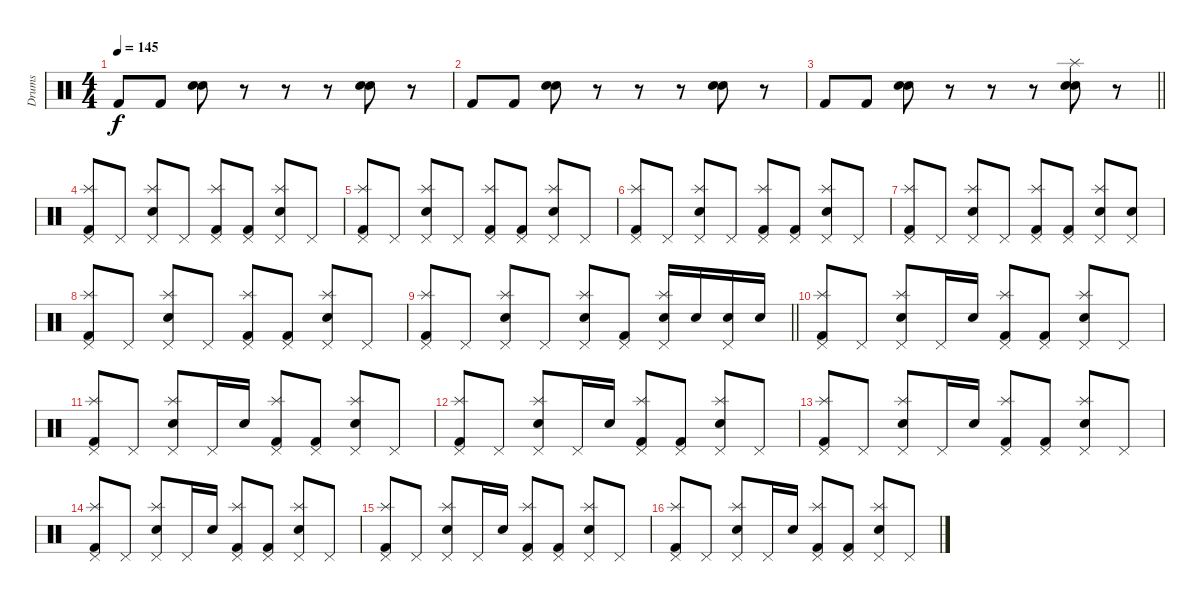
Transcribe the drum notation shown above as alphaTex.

\track ("Drums" "Drums") {instrument percussion}
\staff {score}
\articulation defaults
\ts (4 4)
\tempo 145
\clef neutral
\ks c "Kick (hit) 2".8{dy f} "Kick (hit) 2".8
("Electric Snare (hit)" "Electric Snare (hit)").8{bd 60} r.8 r.8 r.8 ("Electric Snare (hit)" "Electric Snare (hit)").8{bd 60} r.8 |
"Kick (hit) 2".8 "Kick (hit) 2".8 ("Electric Snare (hit)" "Electric Snare (hit)").8{bd 60} r.8 r.8 r.8 ("Electric Snare (hit)" "Electric Snare (hit)").8{bd 60} r.8 |
\barLineRight lightlight "Kick (hit) 2".8 "Kick (hit) 2".8
("Electric Snare (hit)" "Electric Snare (hit)").8{bd 60} r.8 r.8 r.8 ("Splash (hit)" "Electric Snare (hit)" "Electric Snare (hit)").8{bd 60} r.8 |
("Splash (hit)" "Pedal Hi-Hat (hit)" "Kick (hit) 2").8 "Pedal Hi-Hat (hit)".8 ("Splash (hit)" "Pedal Hi-Hat (hit)" "Electric Snare (hit)").8 "Pedal Hi-Hat (hit)".8 ("Splash (hit)" "Pedal Hi-Hat (hit)" "Kick (hit) 2").8 ("Pedal Hi-Hat (hit)" "Kick (hit) 2").8 ("Splash (hit)" "Pedal Hi-Hat (hit)" "Electric Snare (hit)").8 "Pedal Hi-Hat (hit)".8 |
("Splash (hit)" "Pedal Hi-Hat (hit)" "Kick (hit) 2").8 "Pedal Hi-Hat (hit)".8 ("Splash (hit)" "Pedal Hi-Hat (hit)" "Electric Snare (hit)").8 "Pedal Hi-Hat (hit)".8 ("Splash (hit)" "Pedal Hi-Hat (hit)" "Kick (hit) 2").8 ("Pedal Hi-Hat (hit)" "Kick (hit) 2").8 ("Splash (hit)" "Pedal Hi-Hat (hit)" "Electric Snare (hit)").8 "Pedal Hi-Hat (hit)".8 |
("Splash (hit)" "Pedal Hi-Hat (hit)" "Kick (hit) 2").8 "Pedal Hi-Hat (hit)".8 ("Splash (hit)" "Pedal Hi-Hat (hit)" "Electric Snare (hit)").8 "Pedal Hi-Hat (hit)".8 ("Splash (hit)" "Pedal Hi-Hat (hit)" "Kick (hit) 2").8 ("Pedal Hi-Hat (hit)" "Kick (hit) 2").8 ("Splash (hit)" "Pedal Hi-Hat (hit)" "Electric Snare (hit)").8 "Pedal Hi-Hat (hit)".8 |
("Splash (hit)" "Pedal Hi-Hat (hit)" "Kick (hit) 2").8 "Pedal Hi-Hat (hit)".8 ("Splash (hit)" "Pedal Hi-Hat (hit)" "Electric Snare (hit)").8 "Pedal Hi-Hat (hit)".8 ("Splash (hit)" "Pedal Hi-Hat (hit)" "Kick (hit) 2").8 ("Pedal Hi-Hat (hit)" "Kick (hit) 2").8 ("Splash (hit)" "Pedal Hi-Hat (hit)" "Electric Snare (hit)").8 ("Pedal Hi-Hat (hit)" "Electric Snare (hit)").8 |
("Splash (hit)" "Pedal Hi-Hat (hit)" "Kick (hit) 2").8 "Pedal Hi-Hat (hit)".8 ("Splash (hit)" "Pedal Hi-Hat (hit)" "Electric Snare (hit)").8 "Pedal Hi-Hat (hit)".8 ("Splash (hit)" "Pedal Hi-Hat (hit)" "Kick (hit) 2").8 ("Pedal Hi-Hat (hit)" "Kick (hit) 2").8 ("Splash (hit)" "Pedal Hi-Hat (hit)" "Electric Snare (hit)").8 "Pedal Hi-Hat (hit)".8 |
\barLineRight lightlight
("Splash (hit)" "Pedal Hi-Hat (hit)" "Kick (hit) 2").8 "Pedal Hi-Hat (hit)".8 ("Splash (hit)" "Pedal Hi-Hat (hit)" "Electric Snare (hit)").8 "Pedal Hi-Hat (hit)".8 ("Splash (hit)" "Pedal Hi-Hat (hit)" "Electric Snare (hit)").8 ("Pedal Hi-Hat (hit)" "Kick (hit) 2").8 ("Splash (hit)" "Pedal Hi-Hat (hit)" "Electric Snare (hit)").16 "Electric Snare (hit)".16 ("Pedal Hi-Hat (hit)" "Electric Snare (hit)").16 "Electric Snare (hit)".16 |
("Pedal Hi-Hat (hit)" "Splash (hit)" "Kick (hit) 2").8 "Pedal Hi-Hat (hit)".8 ("Pedal Hi-Hat (hit)" "Splash (hit)" "Electric Snare (hit)").8 "Pedal Hi-Hat (hit)".16 "Electric Snare (hit)".16 ("Pedal Hi-Hat (hit)" "Splash (hit)" "Kick (hit) 2").8 ("Pedal Hi-Hat (hit)" "Kick (hit) 2").8 ("Pedal Hi-Hat (hit)" "Splash (hit)" "Electric Snare (hit)").8 "Pedal Hi-Hat (hit)".8 |
("Pedal Hi-Hat (hit)" "Splash (hit)" "Kick (hit) 2").8 "Pedal Hi-Hat (hit)".8 ("Pedal Hi-Hat (hit)" "Splash (hit)" "Electric Snare (hit)").8 "Pedal Hi-Hat (hit)".16 "Electric Snare (hit)".16 ("Pedal Hi-Hat (hit)" "Splash (hit)" "Kick (hit) 2").8 ("Pedal Hi-Hat (hit)" "Kick (hit) 2").8 ("Pedal Hi-Hat (hit)" "Splash (hit)" "Electric Snare (hit)").8 "Pedal Hi-Hat (hit)".8 |
("Pedal Hi-Hat (hit)" "Splash (hit)" "Kick (hit) 2").8 "Pedal Hi-Hat (hit)".8 ("Pedal Hi-Hat (hit)" "Splash (hit)" "Electric Snare (hit)").8 "Pedal Hi-Hat (hit)".16 "Electric Snare (hit)".16 ("Pedal Hi-Hat (hit)" "Splash (hit)" "Kick (hit) 2").8 ("Pedal Hi-Hat (hit)" "Kick (hit) 2").8 ("Pedal Hi-Hat (hit)" "Splash (hit)" "Electric Snare (hit)").8 "Pedal Hi-Hat (hit)".8 |
("Pedal Hi-Hat (hit)" "Splash (hit)" "Kick (hit) 2").8 "Pedal Hi-Hat (hit)".8 ("Pedal Hi-Hat (hit)" "Splash (hit)" "Electric Snare (hit)").8 "Pedal Hi-Hat (hit)".16 "Electric Snare (hit)".16 ("Pedal Hi-Hat (hit)" "Splash (hit)" "Kick (hit) 2").8 ("Pedal Hi-Hat (hit)" "Kick (hit) 2").8 ("Pedal Hi-Hat (hit)" "Splash (hit)" "Electric Snare (hit)").8 "Pedal Hi-Hat (hit)".8 |
("Pedal Hi-Hat (hit)" "Splash (hit)" "Kick (hit) 2").8 "Pedal Hi-Hat (hit)".8 ("Pedal Hi-Hat (hit)" "Splash (hit)" "Electric Snare (hit)").8 "Pedal Hi-Hat (hit)".16 "Electric Snare (hit)".16 ("Pedal Hi-Hat (hit)" "Splash (hit)" "Kick (hit) 2").8 ("Pedal Hi-Hat (hit)" "Kick (hit) 2").8 ("Pedal Hi-Hat (hit)" "Splash (hit)" "Electric Snare (hit)").8 "Pedal Hi-Hat (hit)".8 |
("Pedal Hi-Hat (hit)" "Splash (hit)" "Kick (hit) 2").8 "Pedal Hi-Hat (hit)".8 ("Pedal Hi-Hat (hit)" "Splash (hit)" "Electric Snare (hit)").8 "Pedal Hi-Hat (hit)".16 "Electric Snare (hit)".16 ("Pedal Hi-Hat (hit)" "Splash (hit)" "Kick (hit) 2").8 ("Pedal Hi-Hat (hit)" "Kick (hit) 2").8 ("Pedal Hi-Hat (hit)" "Splash (hit)" "Electric Snare (hit)").8 "Pedal Hi-Hat (hit)".8 |
("Pedal Hi-Hat (hit)" "Splash (hit)" "Kick (hit) 2").8 "Pedal Hi-Hat (hit)".8 ("Pedal Hi-Hat (hit)" "Splash (hit)" "Electric Snare (hit)").8 "Pedal Hi-Hat (hit)".16 "Electric Snare (hit)".16 ("Pedal Hi-Hat (hit)" "Splash (hit)" "Kick (hit) 2").8 ("Pedal Hi-Hat (hit)" "Kick (hit) 2").8 ("Pedal Hi-Hat (hit)" "Splash (hit)" "Electric Snare (hit)").8 "Pedal Hi-Hat (hit)".8
